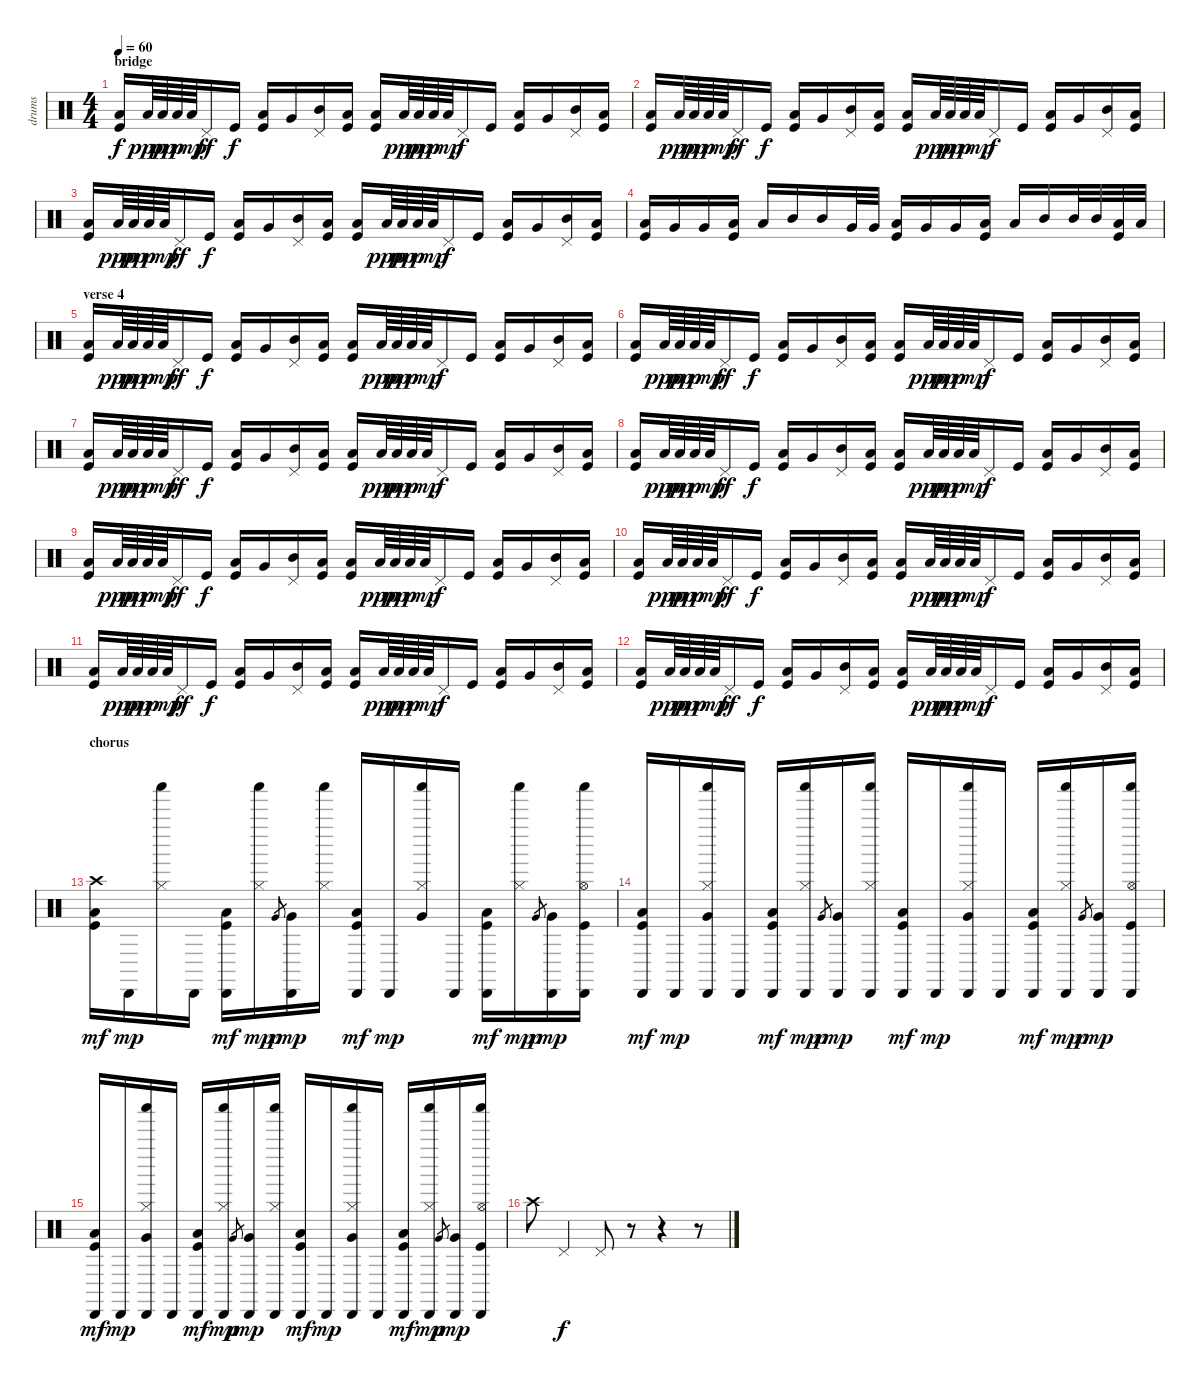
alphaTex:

\track ("drums" "drums") {instrument percussion}
\staff {score}
\articulation defaults
\ts (4 4)
\section ("" "bridge")
\tempo 60
\clef neutral
\ks c
("Low Floor Tom (hit)" "Kick (hit)").16{dy f} "Low Floor Tom (hit)".64{dy ppp} "Low Floor Tom (hit)".64{dy pp} "Low Floor Tom (hit)".64{dy p} "Low Floor Tom (hit)".64{dy mp} "Pedal Hi-Hat (hit)".16{dy ff} "Kick (hit)".16{dy f} ("Low Floor Tom (hit)" "Kick (hit)").16 "Very Low Tom (hit)".16 ("Mid Tom (hit)" "Pedal Hi-Hat (hit)").16 ("Low Floor Tom (hit)" "Kick (hit)").16 ("Low Floor Tom (hit)" "Kick (hit)").16 "Low Floor Tom (hit)".64{dy ppp} "Low Floor Tom (hit)".64{dy pp} "Low Floor Tom (hit)".64{dy p} "Low Floor Tom (hit)".64{dy mp} "Pedal Hi-Hat (hit)".16{dy f} "Kick (hit)".16 ("Low Floor Tom (hit)" "Kick (hit)").16 "Very Low Tom (hit)".16 ("Mid Tom (hit)" "Pedal Hi-Hat (hit)").16 ("Low Floor Tom (hit)" "Kick (hit)").16 |
("Low Floor Tom (hit)" "Kick (hit)").16 "Low Floor Tom (hit)".64{dy ppp} "Low Floor Tom (hit)".64{dy pp} "Low Floor Tom (hit)".64{dy p} "Low Floor Tom (hit)".64{dy mp} "Pedal Hi-Hat (hit)".16{dy ff} "Kick (hit)".16{dy f} ("Low Floor Tom (hit)" "Kick (hit)").16 "Very Low Tom (hit)".16 ("Mid Tom (hit)" "Pedal Hi-Hat (hit)").16 ("Low Floor Tom (hit)" "Kick (hit)").16 ("Low Floor Tom (hit)" "Kick (hit)").16 "Low Floor Tom (hit)".64{dy ppp} "Low Floor Tom (hit)".64{dy pp} "Low Floor Tom (hit)".64{dy p} "Low Floor Tom (hit)".64{dy mp} "Pedal Hi-Hat (hit)".16{dy f} "Kick (hit)".16 ("Low Floor Tom (hit)" "Kick (hit)").16 "Very Low Tom (hit)".16 ("Mid Tom (hit)" "Pedal Hi-Hat (hit)").16 ("Low Floor Tom (hit)" "Kick (hit)").16 |
("Low Floor Tom (hit)" "Kick (hit)").16 "Low Floor Tom (hit)".64{dy ppp} "Low Floor Tom (hit)".64{dy pp} "Low Floor Tom (hit)".64{dy p} "Low Floor Tom (hit)".64{dy mp} "Pedal Hi-Hat (hit)".16{dy ff} "Kick (hit)".16{dy f} ("Low Floor Tom (hit)" "Kick (hit)").16 "Very Low Tom (hit)".16 ("Mid Tom (hit)" "Pedal Hi-Hat (hit)").16 ("Low Floor Tom (hit)" "Kick (hit)").16 ("Low Floor Tom (hit)" "Kick (hit)").16 "Low Floor Tom (hit)".64{dy ppp} "Low Floor Tom (hit)".64{dy pp} "Low Floor Tom (hit)".64{dy p} "Low Floor Tom (hit)".64{dy mp} "Pedal Hi-Hat (hit)".16{dy f} "Kick (hit)".16 ("Low Floor Tom (hit)" "Kick (hit)").16 "Very Low Tom (hit)".16 ("Mid Tom (hit)" "Pedal Hi-Hat (hit)").16 ("Low Floor Tom (hit)" "Kick (hit)").16 |
("Low Floor Tom (hit)" "Kick (hit)").16 "Very Low Tom (hit)".16 "Very Low Tom (hit)".16 ("Low Floor Tom (hit)" "Kick (hit)").16 "Low Floor Tom (hit)".16 "Mid Tom (hit)".16 "Mid Tom (hit)".16 "Very Low Tom (hit)".32 "Very Low Tom (hit)".32 ("Low Floor Tom (hit)" "Kick (hit)").16 "Very Low Tom (hit)".16 "Very Low Tom (hit)".16 ("Low Floor Tom (hit)" "Kick (hit)").16 "Low Floor Tom (hit)".16 "Mid Tom (hit)".16 "Mid Tom (hit)".32 "Mid Tom (hit)".32 ("Low Floor Tom (hit)" "Kick (hit)").32 "Low Floor Tom (hit)".32 |
\section ("" "verse 4")
("Low Floor Tom (hit)" "Kick (hit)").16 "Low Floor Tom (hit)".64{dy ppp} "Low Floor Tom (hit)".64{dy pp} "Low Floor Tom (hit)".64{dy p} "Low Floor Tom (hit)".64{dy mp} "Pedal Hi-Hat (hit)".16{dy ff} "Kick (hit)".16{dy f} ("Low Floor Tom (hit)" "Kick (hit)").16 "Very Low Tom (hit)".16 ("Mid Tom (hit)" "Pedal Hi-Hat (hit)").16 ("Low Floor Tom (hit)" "Kick (hit)").16 ("Low Floor Tom (hit)" "Kick (hit)").16 "Low Floor Tom (hit)".64{dy ppp} "Low Floor Tom (hit)".64{dy pp} "Low Floor Tom (hit)".64{dy p} "Low Floor Tom (hit)".64{dy mp} "Pedal Hi-Hat (hit)".16{dy f} "Kick (hit)".16 ("Low Floor Tom (hit)" "Kick (hit)").16 "Very Low Tom (hit)".16 ("Mid Tom (hit)" "Pedal Hi-Hat (hit)").16 ("Low Floor Tom (hit)" "Kick (hit)").16 |
("Low Floor Tom (hit)" "Kick (hit)").16 "Low Floor Tom (hit)".64{dy ppp} "Low Floor Tom (hit)".64{dy pp} "Low Floor Tom (hit)".64{dy p} "Low Floor Tom (hit)".64{dy mp} "Pedal Hi-Hat (hit)".16{dy ff} "Kick (hit)".16{dy f} ("Low Floor Tom (hit)" "Kick (hit)").16 "Very Low Tom (hit)".16 ("Mid Tom (hit)" "Pedal Hi-Hat (hit)").16 ("Low Floor Tom (hit)" "Kick (hit)").16 ("Low Floor Tom (hit)" "Kick (hit)").16 "Low Floor Tom (hit)".64{dy ppp} "Low Floor Tom (hit)".64{dy pp} "Low Floor Tom (hit)".64{dy p} "Low Floor Tom (hit)".64{dy mp} "Pedal Hi-Hat (hit)".16{dy f} "Kick (hit)".16 ("Low Floor Tom (hit)" "Kick (hit)").16 "Very Low Tom (hit)".16 ("Mid Tom (hit)" "Pedal Hi-Hat (hit)").16 ("Low Floor Tom (hit)" "Kick (hit)").16 |
("Low Floor Tom (hit)" "Kick (hit)").16 "Low Floor Tom (hit)".64{dy ppp} "Low Floor Tom (hit)".64{dy pp} "Low Floor Tom (hit)".64{dy p} "Low Floor Tom (hit)".64{dy mp} "Pedal Hi-Hat (hit)".16{dy ff} "Kick (hit)".16{dy f} ("Low Floor Tom (hit)" "Kick (hit)").16 "Very Low Tom (hit)".16 ("Mid Tom (hit)" "Pedal Hi-Hat (hit)").16 ("Low Floor Tom (hit)" "Kick (hit)").16 ("Low Floor Tom (hit)" "Kick (hit)").16 "Low Floor Tom (hit)".64{dy ppp} "Low Floor Tom (hit)".64{dy pp} "Low Floor Tom (hit)".64{dy p} "Low Floor Tom (hit)".64{dy mp} "Pedal Hi-Hat (hit)".16{dy f} "Kick (hit)".16 ("Low Floor Tom (hit)" "Kick (hit)").16 "Very Low Tom (hit)".16 ("Mid Tom (hit)" "Pedal Hi-Hat (hit)").16 ("Low Floor Tom (hit)" "Kick (hit)").16 |
("Low Floor Tom (hit)" "Kick (hit)").16 "Low Floor Tom (hit)".64{dy ppp} "Low Floor Tom (hit)".64{dy pp} "Low Floor Tom (hit)".64{dy p} "Low Floor Tom (hit)".64{dy mp} "Pedal Hi-Hat (hit)".16{dy ff} "Kick (hit)".16{dy f} ("Low Floor Tom (hit)" "Kick (hit)").16 "Very Low Tom (hit)".16 ("Mid Tom (hit)" "Pedal Hi-Hat (hit)").16 ("Low Floor Tom (hit)" "Kick (hit)").16 ("Low Floor Tom (hit)" "Kick (hit)").16 "Low Floor Tom (hit)".64{dy ppp} "Low Floor Tom (hit)".64{dy pp} "Low Floor Tom (hit)".64{dy p} "Low Floor Tom (hit)".64{dy mp} "Pedal Hi-Hat (hit)".16{dy f} "Kick (hit)".16 ("Low Floor Tom (hit)" "Kick (hit)").16 "Very Low Tom (hit)".16 ("Mid Tom (hit)" "Pedal Hi-Hat (hit)").16 ("Low Floor Tom (hit)" "Kick (hit)").16 |
("Low Floor Tom (hit)" "Kick (hit)").16 "Low Floor Tom (hit)".64{dy ppp} "Low Floor Tom (hit)".64{dy pp} "Low Floor Tom (hit)".64{dy p} "Low Floor Tom (hit)".64{dy mp} "Pedal Hi-Hat (hit)".16{dy ff} "Kick (hit)".16{dy f} ("Low Floor Tom (hit)" "Kick (hit)").16 "Very Low Tom (hit)".16 ("Mid Tom (hit)" "Pedal Hi-Hat (hit)").16 ("Low Floor Tom (hit)" "Kick (hit)").16 ("Low Floor Tom (hit)" "Kick (hit)").16 "Low Floor Tom (hit)".64{dy ppp} "Low Floor Tom (hit)".64{dy pp} "Low Floor Tom (hit)".64{dy p} "Low Floor Tom (hit)".64{dy mp} "Pedal Hi-Hat (hit)".16{dy f} "Kick (hit)".16 ("Low Floor Tom (hit)" "Kick (hit)").16 "Very Low Tom (hit)".16 ("Mid Tom (hit)" "Pedal Hi-Hat (hit)").16 ("Low Floor Tom (hit)" "Kick (hit)").16 |
("Low Floor Tom (hit)" "Kick (hit)").16 "Low Floor Tom (hit)".64{dy ppp} "Low Floor Tom (hit)".64{dy pp} "Low Floor Tom (hit)".64{dy p} "Low Floor Tom (hit)".64{dy mp} "Pedal Hi-Hat (hit)".16{dy ff} "Kick (hit)".16{dy f} ("Low Floor Tom (hit)" "Kick (hit)").16 "Very Low Tom (hit)".16 ("Mid Tom (hit)" "Pedal Hi-Hat (hit)").16 ("Low Floor Tom (hit)" "Kick (hit)").16 ("Low Floor Tom (hit)" "Kick (hit)").16 "Low Floor Tom (hit)".64{dy ppp} "Low Floor Tom (hit)".64{dy pp} "Low Floor Tom (hit)".64{dy p} "Low Floor Tom (hit)".64{dy mp} "Pedal Hi-Hat (hit)".16{dy f} "Kick (hit)".16 ("Low Floor Tom (hit)" "Kick (hit)").16 "Very Low Tom (hit)".16 ("Mid Tom (hit)" "Pedal Hi-Hat (hit)").16 ("Low Floor Tom (hit)" "Kick (hit)").16 |
("Low Floor Tom (hit)" "Kick (hit)").16 "Low Floor Tom (hit)".64{dy ppp} "Low Floor Tom (hit)".64{dy pp} "Low Floor Tom (hit)".64{dy p} "Low Floor Tom (hit)".64{dy mp} "Pedal Hi-Hat (hit)".16{dy ff} "Kick (hit)".16{dy f} ("Low Floor Tom (hit)" "Kick (hit)").16 "Very Low Tom (hit)".16 ("Mid Tom (hit)" "Pedal Hi-Hat (hit)").16 ("Low Floor Tom (hit)" "Kick (hit)").16 ("Low Floor Tom (hit)" "Kick (hit)").16 "Low Floor Tom (hit)".64{dy ppp} "Low Floor Tom (hit)".64{dy pp} "Low Floor Tom (hit)".64{dy p} "Low Floor Tom (hit)".64{dy mp} "Pedal Hi-Hat (hit)".16{dy f} "Kick (hit)".16 ("Low Floor Tom (hit)" "Kick (hit)").16 "Very Low Tom (hit)".16 ("Mid Tom (hit)" "Pedal Hi-Hat (hit)").16 ("Low Floor Tom (hit)" "Kick (hit)").16 |
("Low Floor Tom (hit)" "Kick (hit)").16 "Low Floor Tom (hit)".64{dy ppp} "Low Floor Tom (hit)".64{dy pp} "Low Floor Tom (hit)".64{dy p} "Low Floor Tom (hit)".64{dy mp} "Pedal Hi-Hat (hit)".16{dy ff} "Kick (hit)".16{dy f} ("Low Floor Tom (hit)" "Kick (hit)").16 "Very Low Tom (hit)".16 ("Mid Tom (hit)" "Pedal Hi-Hat (hit)").16 ("Low Floor Tom (hit)" "Kick (hit)").16 ("Low Floor Tom (hit)" "Kick (hit)").16 "Low Floor Tom (hit)".64{dy ppp} "Low Floor Tom (hit)".64{dy pp} "Low Floor Tom (hit)".64{dy p} "Low Floor Tom (hit)".64{dy mp} "Pedal Hi-Hat (hit)".16{dy f} "Kick (hit)".16 ("Low Floor Tom (hit)" "Kick (hit)").16 "Very Low Tom (hit)".16 ("Mid Tom (hit)" "Pedal Hi-Hat (hit)").16 ("Low Floor Tom (hit)" "Kick (hit)").16 |
\section ("" "chorus")
("Crash high (hit)" "Low Floor Tom (hit)" "Kick (hit)").16{dy mf} "Cabasa (hit)".16{dy mp} ("Shaker (hit)" "Hi-Hat (closed)").16 "Cabasa (hit)".16 ("Cabasa (hit)" "Low Floor Tom (hit)" "Kick (hit)").16{dy mf} ("Shaker (hit)" "Hi-Hat (closed)").16{dy mp} "Very Low Tom (hit)".8{gr dy p} ("Cabasa (hit)" "Very Low Tom (hit)").16{dy mp} ("Shaker (hit)" "Hi-Hat (closed)").16 ("Cabasa (hit)" "Low Floor Tom (hit)" "Kick (hit)").16{dy mf} "Cabasa (hit)".16{dy mp} ("Shaker (hit)" "Very Low Tom (hit)" "Hi-Hat (closed)").16 "Cabasa (hit)".16 ("Cabasa (hit)" "Low Floor Tom (hit)" "Kick (hit)").16{dy mf} ("Shaker (hit)" "Hi-Hat (closed)").16{dy mp} "Very Low Tom (hit)".8{gr dy p} ("Cabasa (hit)" "Very Low Tom (hit)").16{dy mp} ("Cabasa (hit)" "Shaker (hit)" "Hi-Hat (open)" "Kick (hit)").16 |
("Cabasa (hit)" "Low Floor Tom (hit)" "Kick (hit)").16{dy mf} "Cabasa (hit)".16{dy mp} ("Cabasa (hit)" "Shaker (hit)" "Very Low Tom (hit)" "Hi-Hat (closed)").16 "Cabasa (hit)".16 ("Cabasa (hit)" "Low Floor Tom (hit)" "Kick (hit)").16{dy mf} ("Cabasa (hit)" "Shaker (hit)" "Hi-Hat (closed)").16{dy mp} "Very Low Tom (hit)".8{gr dy p} ("Cabasa (hit)" "Very Low Tom (hit)").16{dy mp} ("Cabasa (hit)" "Shaker (hit)" "Hi-Hat (closed)").16 ("Cabasa (hit)" "Low Floor Tom (hit)" "Kick (hit)").16{dy mf} "Cabasa (hit)".16{dy mp} ("Cabasa (hit)" "Shaker (hit)" "Very Low Tom (hit)" "Hi-Hat (closed)").16 "Cabasa (hit)".16 ("Cabasa (hit)" "Low Floor Tom (hit)" "Kick (hit)").16{dy mf} ("Cabasa (hit)" "Shaker (hit)" "Hi-Hat (closed)").16{dy mp} "Very Low Tom (hit)".8{gr dy p} ("Cabasa (hit)" "Very Low Tom (hit)").16{dy mp} ("Cabasa (hit)" "Shaker (hit)" "Hi-Hat (open)" "Kick (hit)").16 |
("Cabasa (hit)" "Low Floor Tom (hit)" "Kick (hit)").16{dy mf} "Cabasa (hit)".16{dy mp} ("Cabasa (hit)" "Shaker (hit)" "Very Low Tom (hit)" "Hi-Hat (closed)").16 "Cabasa (hit)".16 ("Cabasa (hit)" "Low Floor Tom (hit)" "Kick (hit)").16{dy mf} ("Cabasa (hit)" "Shaker (hit)" "Hi-Hat (closed)").16{dy mp} "Very Low Tom (hit)".8{gr dy p} ("Cabasa (hit)" "Very Low Tom (hit)").16{dy mp} ("Cabasa (hit)" "Shaker (hit)" "Hi-Hat (closed)").16 ("Cabasa (hit)" "Low Floor Tom (hit)" "Kick (hit)").16{dy mf} "Cabasa (hit)".16{dy mp} ("Cabasa (hit)" "Shaker (hit)" "Very Low Tom (hit)" "Hi-Hat (closed)").16 "Cabasa (hit)".16 ("Cabasa (hit)" "Low Floor Tom (hit)" "Kick (hit)").16{dy mf} ("Cabasa (hit)" "Shaker (hit)" "Hi-Hat (closed)").16{dy mp} "Very Low Tom (hit)".8{gr dy p} ("Cabasa (hit)" "Very Low Tom (hit)").16{dy mp} ("Cabasa (hit)" "Shaker (hit)" "Hi-Hat (open)" "Kick (hit)").16 |
"Crash high (hit)".8 "Pedal Hi-Hat (hit)".4{dy f} "Pedal Hi-Hat (hit)".8 r.8 r.4 r.8
